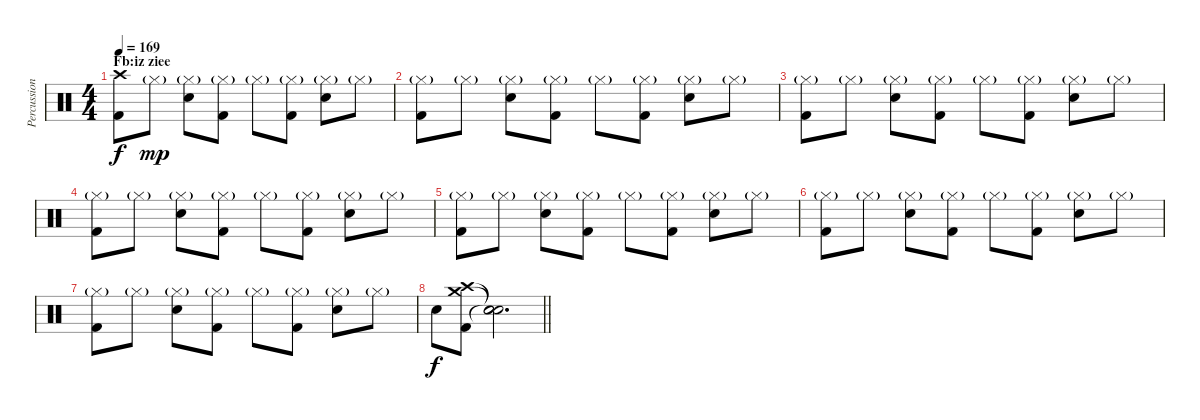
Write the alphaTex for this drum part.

\track ("Percussion" "Percussion") {instrument percussion}
\staff {score}
\articulation defaults
\ts (4 4)
\section ("" "Fb:iz ziee")
\tempo 169
\clef neutral
\ks c
("Crash high (hit)" "Kick (hit) 2").8{dy f} "Hi-Hat (closed)"{g}.8{dy mp} ("Hi-Hat (closed)"{g} "Snare (hit) 2").8 ("Hi-Hat (closed)"{g} "Kick (hit) 2").8 "Hi-Hat (closed)"{g}.8 ("Hi-Hat (closed)"{g} "Kick (hit) 2").8 ("Hi-Hat (closed)"{g} "Snare (hit) 2").8 "Hi-Hat (closed)"{g}.8 |
("Hi-Hat (closed)"{g} "Kick (hit) 2").8 "Hi-Hat (closed)"{g}.8 ("Hi-Hat (closed)"{g} "Snare (hit) 2").8 ("Hi-Hat (closed)"{g} "Kick (hit) 2").8 "Hi-Hat (closed)"{g}.8 ("Hi-Hat (closed)"{g} "Kick (hit) 2").8 ("Hi-Hat (closed)"{g} "Snare (hit) 2").8 "Hi-Hat (closed)"{g}.8 |
("Hi-Hat (closed)"{g} "Kick (hit) 2").8 "Hi-Hat (closed)"{g}.8 ("Hi-Hat (closed)"{g} "Snare (hit) 2").8 ("Hi-Hat (closed)"{g} "Kick (hit) 2").8 "Hi-Hat (closed)"{g}.8 ("Hi-Hat (closed)"{g} "Kick (hit) 2").8 ("Hi-Hat (closed)"{g} "Snare (hit) 2").8 "Hi-Hat (closed)"{g}.8 |
("Hi-Hat (closed)"{g} "Kick (hit) 2").8 "Hi-Hat (closed)"{g}.8 ("Hi-Hat (closed)"{g} "Snare (hit) 2").8 ("Hi-Hat (closed)"{g} "Kick (hit) 2").8 "Hi-Hat (closed)"{g}.8 ("Hi-Hat (closed)"{g} "Kick (hit) 2").8 ("Hi-Hat (closed)"{g} "Snare (hit) 2").8 "Hi-Hat (closed)"{g}.8 |
("Hi-Hat (closed)"{g} "Kick (hit) 2").8 "Hi-Hat (closed)"{g}.8 ("Hi-Hat (closed)"{g} "Snare (hit) 2").8 ("Hi-Hat (closed)"{g} "Kick (hit) 2").8 "Hi-Hat (closed)"{g}.8 ("Hi-Hat (closed)"{g} "Kick (hit) 2").8 ("Hi-Hat (closed)"{g} "Snare (hit) 2").8 "Hi-Hat (closed)"{g}.8 |
("Hi-Hat (closed)"{g} "Kick (hit) 2").8 "Hi-Hat (closed)"{g}.8 ("Hi-Hat (closed)"{g} "Snare (hit) 2").8 ("Hi-Hat (closed)"{g} "Kick (hit) 2").8 "Hi-Hat (closed)"{g}.8 ("Hi-Hat (closed)"{g} "Kick (hit) 2").8 ("Hi-Hat (closed)"{g} "Snare (hit) 2").8 "Hi-Hat (closed)"{g}.8 |
("Hi-Hat (closed)"{g} "Kick (hit) 2").8 "Hi-Hat (closed)"{g}.8 ("Hi-Hat (closed)"{g} "Snare (hit) 2").8 ("Hi-Hat (closed)"{g} "Kick (hit) 2").8 "Hi-Hat (closed)"{g}.8 ("Hi-Hat (closed)"{g} "Kick (hit) 2").8 ("Hi-Hat (closed)"{g} "Snare (hit) 2").8 "Hi-Hat (closed)"{g}.8 |
\barLineRight lightlight "Snare (hit) 2".8{dy f}
("Crash medium (hit)" "Crash high (hit)" "Kick (hit) 2").8 ("Snare (hit)"{t} "Snare (hit)"{t} "Snare (hit)"{t}).2{d}
